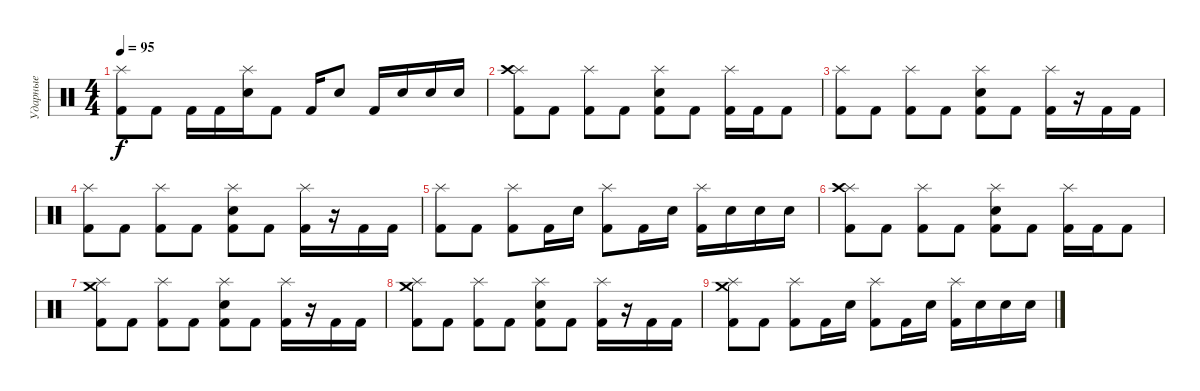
\track ("Ударные" "Ударные") {instrument percussion}
\staff {score}
\articulation defaults
\ts (4 4)
\tempo 95
\clef neutral
\ks c
("Splash (hit)" "Kick (hit) 2").8{dy f} "Kick (hit) 2".8 "Kick (hit) 2".16 "Kick (hit) 2".16 ("Splash (hit)" "Electric Snare (hit)").16 "Kick (hit) 2".8 "Kick (hit) 2".16 "Electric Snare (hit)".8 "Kick (hit) 2".16 "Electric Snare (hit)".16 "Electric Snare (hit)".16 "Electric Snare (hit)".16 |
("Splash (hit)" "Crash high (hit)" "Kick (hit) 2").8 "Kick (hit) 2".8 ("Splash (hit)" "Kick (hit) 2").8 "Kick (hit) 2".8 ("Splash (hit)" "Electric Snare (hit)" "Kick (hit) 2").8 "Kick (hit) 2".8 ("Splash (hit)" "Kick (hit) 2").16 "Kick (hit) 2".16 "Kick (hit) 2".8 |
("Splash (hit)" "Kick (hit) 2").8 "Kick (hit) 2".8 ("Splash (hit)" "Kick (hit) 2").8 "Kick (hit) 2".8 ("Splash (hit)" "Electric Snare (hit)" "Kick (hit) 2").8 "Kick (hit) 2".8 ("Splash (hit)" "Kick (hit) 2").16 r.16 "Kick (hit) 2".16 "Kick (hit) 2".16 |
("Splash (hit)" "Kick (hit) 2").8 "Kick (hit) 2".8 ("Splash (hit)" "Kick (hit) 2").8 "Kick (hit) 2".8 ("Splash (hit)" "Electric Snare (hit)" "Kick (hit) 2").8 "Kick (hit) 2".8 ("Splash (hit)" "Kick (hit) 2").16 r.16 "Kick (hit) 2".16 "Kick (hit) 2".16 |
("Splash (hit)" "Kick (hit) 2").8 "Kick (hit) 2".8 ("Splash (hit)" "Kick (hit) 2").8 "Kick (hit) 2".16 "Electric Snare (hit)".16 ("Splash (hit)" "Kick (hit) 2").8 "Kick (hit) 2".16 "Electric Snare (hit)".16 ("Splash (hit)" "Kick (hit) 2").16 "Electric Snare (hit)".16 "Electric Snare (hit)".16 "Electric Snare (hit)".16 |
("Splash (hit)" "Crash high (hit)" "Kick (hit) 2").8 "Kick (hit) 2".8 ("Splash (hit)" "Kick (hit) 2").8 "Kick (hit) 2".8 ("Splash (hit)" "Electric Snare (hit)" "Kick (hit) 2").8 "Kick (hit) 2".8 ("Splash (hit)" "Kick (hit) 2").16 "Kick (hit) 2".16 "Kick (hit) 2".8 |
("Splash (hit)" "Crash medium (hit)" "Kick (hit) 2").8 "Kick (hit) 2".8 ("Splash (hit)" "Kick (hit) 2").8 "Kick (hit) 2".8 ("Splash (hit)" "Electric Snare (hit)" "Kick (hit) 2").8 "Kick (hit) 2".8 ("Splash (hit)" "Kick (hit) 2").16 r.16 "Kick (hit) 2".16 "Kick (hit) 2".16 |
("Splash (hit)" "Crash medium (hit)" "Kick (hit) 2").8 "Kick (hit) 2".8 ("Splash (hit)" "Kick (hit) 2").8 "Kick (hit) 2".8 ("Splash (hit)" "Electric Snare (hit)" "Kick (hit) 2").8 "Kick (hit) 2".8 ("Splash (hit)" "Kick (hit) 2").16 r.16 "Kick (hit) 2".16 "Kick (hit) 2".16 |
("Splash (hit)" "Crash medium (hit)" "Kick (hit) 2").8 "Kick (hit) 2".8 ("Splash (hit)" "Kick (hit) 2").8 "Kick (hit) 2".16 "Electric Snare (hit)".16 ("Splash (hit)" "Kick (hit) 2").8 "Kick (hit) 2".16 "Electric Snare (hit)".16 ("Splash (hit)" "Kick (hit) 2").16 "Electric Snare (hit)".16 "Electric Snare (hit)".16 "Electric Snare (hit)".16
